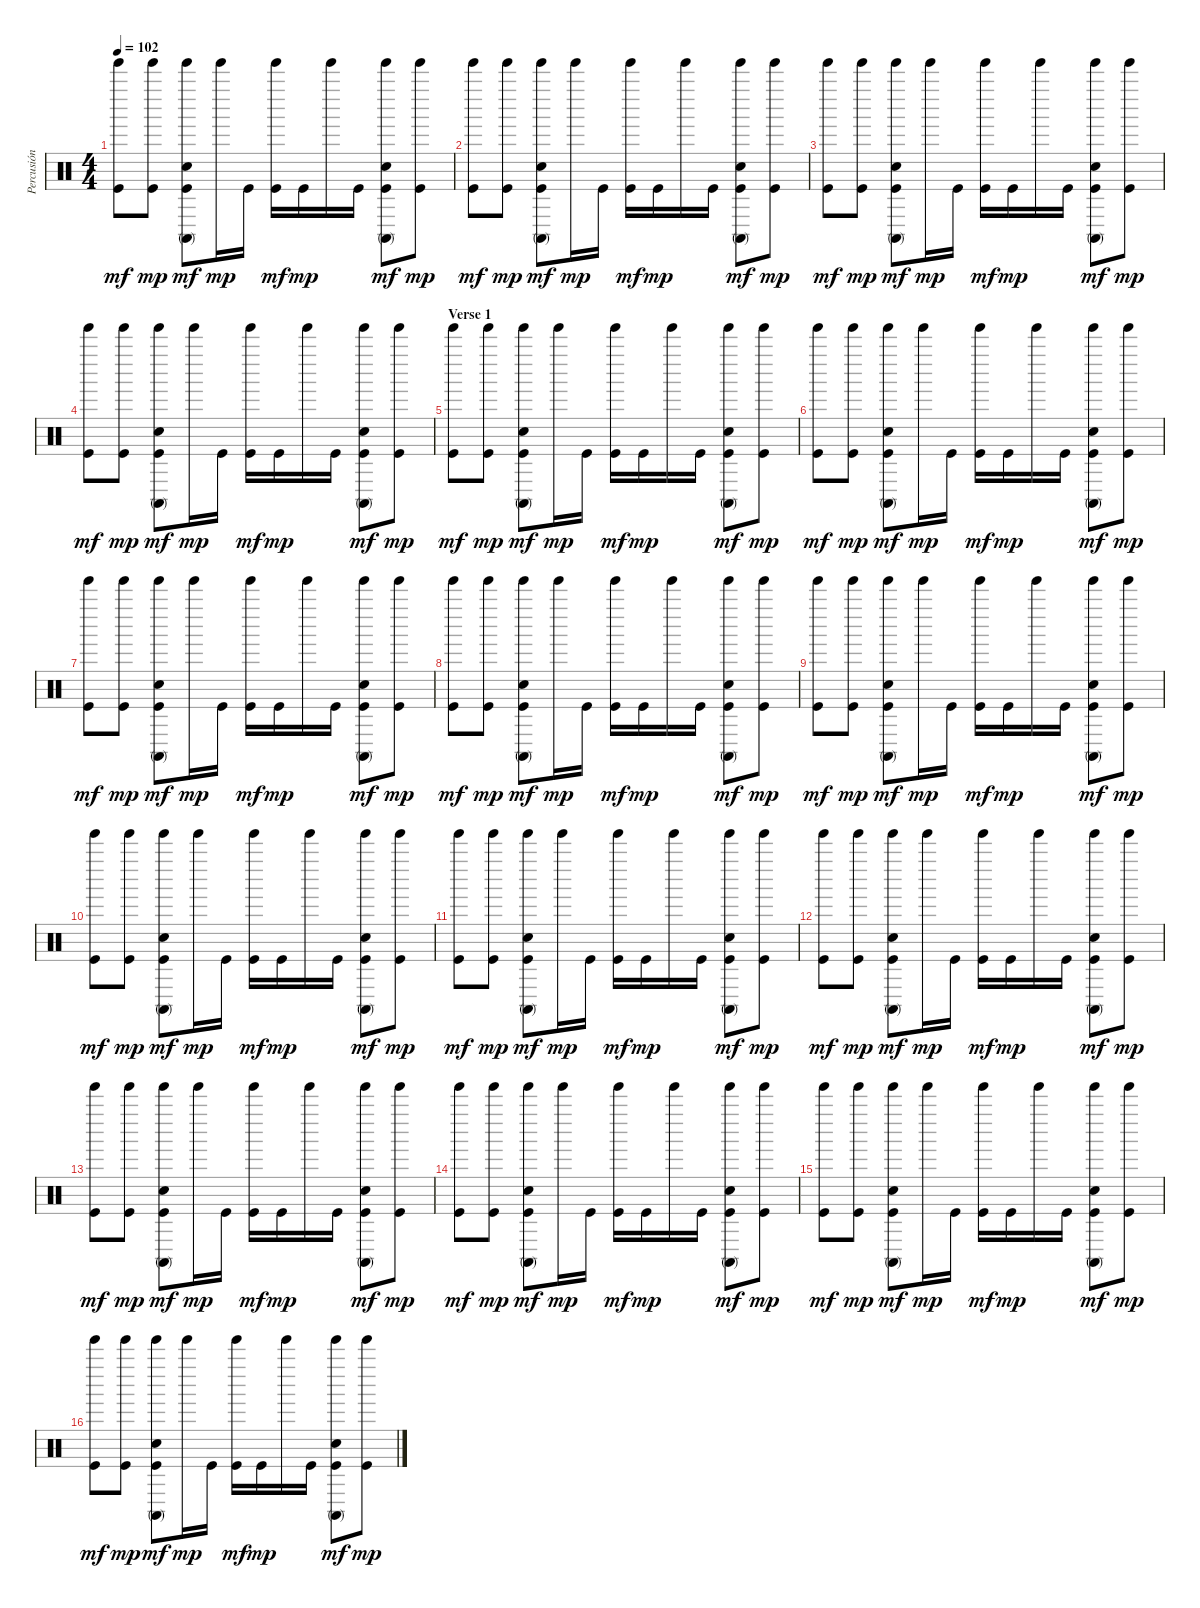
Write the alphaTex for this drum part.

\track ("Percusión" "Percusión") {instrument percussion}
\staff {score}
\articulation defaults
\ts (4 4)
\tempo 102
\clef neutral
\ks c
("Kick (hit)" "Tinkle Bell (hit)").8{dy mf} ("Kick (hit)" "Tinkle Bell (hit)").8{dy mp} ("Kick (hit)" "Snare (hit) 2" "Conga high (mute)" "Tinkle Bell (hit)").8{dy mf} "Tinkle Bell (hit)".16{dy mp} "Kick (hit)".16 ("Kick (hit)" "Tinkle Bell (hit)").16{dy mf} "Kick (hit)".16{dy mp} "Tinkle Bell (hit)".16 "Kick (hit)".16 ("Kick (hit)" "Snare (hit) 2" "Conga high (mute)" "Tinkle Bell (hit)").8{dy mf} ("Kick (hit)" "Tinkle Bell (hit)").8{dy mp} |
("Kick (hit)" "Tinkle Bell (hit)").8{dy mf} ("Kick (hit)" "Tinkle Bell (hit)").8{dy mp} ("Kick (hit)" "Snare (hit) 2" "Conga high (mute)" "Tinkle Bell (hit)").8{dy mf} "Tinkle Bell (hit)".16{dy mp} "Kick (hit)".16 ("Kick (hit)" "Tinkle Bell (hit)").16{dy mf} "Kick (hit)".16{dy mp} "Tinkle Bell (hit)".16 "Kick (hit)".16 ("Kick (hit)" "Snare (hit) 2" "Conga high (mute)" "Tinkle Bell (hit)").8{dy mf} ("Kick (hit)" "Tinkle Bell (hit)").8{dy mp} |
("Kick (hit)" "Tinkle Bell (hit)").8{dy mf} ("Kick (hit)" "Tinkle Bell (hit)").8{dy mp} ("Kick (hit)" "Snare (hit) 2" "Conga high (mute)" "Tinkle Bell (hit)").8{dy mf} "Tinkle Bell (hit)".16{dy mp} "Kick (hit)".16 ("Kick (hit)" "Tinkle Bell (hit)").16{dy mf} "Kick (hit)".16{dy mp} "Tinkle Bell (hit)".16 "Kick (hit)".16 ("Kick (hit)" "Snare (hit) 2" "Conga high (mute)" "Tinkle Bell (hit)").8{dy mf} ("Kick (hit)" "Tinkle Bell (hit)").8{dy mp} |
("Kick (hit)" "Tinkle Bell (hit)").8{dy mf} ("Kick (hit)" "Tinkle Bell (hit)").8{dy mp} ("Kick (hit)" "Snare (hit) 2" "Conga high (mute)" "Tinkle Bell (hit)").8{dy mf} "Tinkle Bell (hit)".16{dy mp} "Kick (hit)".16 ("Kick (hit)" "Tinkle Bell (hit)").16{dy mf} "Kick (hit)".16{dy mp} "Tinkle Bell (hit)".16 "Kick (hit)".16 ("Kick (hit)" "Snare (hit) 2" "Conga high (mute)" "Tinkle Bell (hit)").8{dy mf} ("Kick (hit)" "Tinkle Bell (hit)").8{dy mp} |
\section ("" "Verse 1")
("Kick (hit)" "Tinkle Bell (hit)").8{dy mf} ("Kick (hit)" "Tinkle Bell (hit)").8{dy mp} ("Kick (hit)" "Snare (hit) 2" "Conga high (mute)" "Tinkle Bell (hit)").8{dy mf} "Tinkle Bell (hit)".16{dy mp} "Kick (hit)".16 ("Kick (hit)" "Tinkle Bell (hit)").16{dy mf} "Kick (hit)".16{dy mp} "Tinkle Bell (hit)".16 "Kick (hit)".16 ("Kick (hit)" "Snare (hit) 2" "Conga high (mute)" "Tinkle Bell (hit)").8{dy mf} ("Kick (hit)" "Tinkle Bell (hit)").8{dy mp} |
("Kick (hit)" "Tinkle Bell (hit)").8{dy mf} ("Kick (hit)" "Tinkle Bell (hit)").8{dy mp} ("Kick (hit)" "Snare (hit) 2" "Conga high (mute)" "Tinkle Bell (hit)").8{dy mf} "Tinkle Bell (hit)".16{dy mp} "Kick (hit)".16 ("Kick (hit)" "Tinkle Bell (hit)").16{dy mf} "Kick (hit)".16{dy mp} "Tinkle Bell (hit)".16 "Kick (hit)".16 ("Kick (hit)" "Snare (hit) 2" "Conga high (mute)" "Tinkle Bell (hit)").8{dy mf} ("Kick (hit)" "Tinkle Bell (hit)").8{dy mp} |
("Kick (hit)" "Tinkle Bell (hit)").8{dy mf} ("Kick (hit)" "Tinkle Bell (hit)").8{dy mp} ("Kick (hit)" "Snare (hit) 2" "Conga high (mute)" "Tinkle Bell (hit)").8{dy mf} "Tinkle Bell (hit)".16{dy mp} "Kick (hit)".16 ("Kick (hit)" "Tinkle Bell (hit)").16{dy mf} "Kick (hit)".16{dy mp} "Tinkle Bell (hit)".16 "Kick (hit)".16 ("Kick (hit)" "Snare (hit) 2" "Conga high (mute)" "Tinkle Bell (hit)").8{dy mf} ("Kick (hit)" "Tinkle Bell (hit)").8{dy mp} |
("Kick (hit)" "Tinkle Bell (hit)").8{dy mf} ("Kick (hit)" "Tinkle Bell (hit)").8{dy mp} ("Kick (hit)" "Snare (hit) 2" "Conga high (mute)" "Tinkle Bell (hit)").8{dy mf} "Tinkle Bell (hit)".16{dy mp} "Kick (hit)".16 ("Kick (hit)" "Tinkle Bell (hit)").16{dy mf} "Kick (hit)".16{dy mp} "Tinkle Bell (hit)".16 "Kick (hit)".16 ("Kick (hit)" "Snare (hit) 2" "Conga high (mute)" "Tinkle Bell (hit)").8{dy mf} ("Kick (hit)" "Tinkle Bell (hit)").8{dy mp} |
("Kick (hit)" "Tinkle Bell (hit)").8{dy mf} ("Kick (hit)" "Tinkle Bell (hit)").8{dy mp} ("Kick (hit)" "Snare (hit) 2" "Conga high (mute)" "Tinkle Bell (hit)").8{dy mf} "Tinkle Bell (hit)".16{dy mp} "Kick (hit)".16 ("Kick (hit)" "Tinkle Bell (hit)").16{dy mf} "Kick (hit)".16{dy mp} "Tinkle Bell (hit)".16 "Kick (hit)".16 ("Kick (hit)" "Snare (hit) 2" "Conga high (mute)" "Tinkle Bell (hit)").8{dy mf} ("Kick (hit)" "Tinkle Bell (hit)").8{dy mp} |
("Kick (hit)" "Tinkle Bell (hit)").8{dy mf} ("Kick (hit)" "Tinkle Bell (hit)").8{dy mp} ("Kick (hit)" "Snare (hit) 2" "Conga high (mute)" "Tinkle Bell (hit)").8{dy mf} "Tinkle Bell (hit)".16{dy mp} "Kick (hit)".16 ("Kick (hit)" "Tinkle Bell (hit)").16{dy mf} "Kick (hit)".16{dy mp} "Tinkle Bell (hit)".16 "Kick (hit)".16 ("Kick (hit)" "Snare (hit) 2" "Conga high (mute)" "Tinkle Bell (hit)").8{dy mf} ("Kick (hit)" "Tinkle Bell (hit)").8{dy mp} |
("Kick (hit)" "Tinkle Bell (hit)").8{dy mf} ("Kick (hit)" "Tinkle Bell (hit)").8{dy mp} ("Kick (hit)" "Snare (hit) 2" "Conga high (mute)" "Tinkle Bell (hit)").8{dy mf} "Tinkle Bell (hit)".16{dy mp} "Kick (hit)".16 ("Kick (hit)" "Tinkle Bell (hit)").16{dy mf} "Kick (hit)".16{dy mp} "Tinkle Bell (hit)".16 "Kick (hit)".16 ("Kick (hit)" "Snare (hit) 2" "Conga high (mute)" "Tinkle Bell (hit)").8{dy mf} ("Kick (hit)" "Tinkle Bell (hit)").8{dy mp} |
("Kick (hit)" "Tinkle Bell (hit)").8{dy mf} ("Kick (hit)" "Tinkle Bell (hit)").8{dy mp} ("Kick (hit)" "Snare (hit) 2" "Conga high (mute)" "Tinkle Bell (hit)").8{dy mf} "Tinkle Bell (hit)".16{dy mp} "Kick (hit)".16 ("Kick (hit)" "Tinkle Bell (hit)").16{dy mf} "Kick (hit)".16{dy mp} "Tinkle Bell (hit)".16 "Kick (hit)".16 ("Kick (hit)" "Snare (hit) 2" "Conga high (mute)" "Tinkle Bell (hit)").8{dy mf} ("Kick (hit)" "Tinkle Bell (hit)").8{dy mp} |
("Kick (hit)" "Tinkle Bell (hit)").8{dy mf} ("Kick (hit)" "Tinkle Bell (hit)").8{dy mp} ("Kick (hit)" "Snare (hit) 2" "Conga high (mute)" "Tinkle Bell (hit)").8{dy mf} "Tinkle Bell (hit)".16{dy mp} "Kick (hit)".16 ("Kick (hit)" "Tinkle Bell (hit)").16{dy mf} "Kick (hit)".16{dy mp} "Tinkle Bell (hit)".16 "Kick (hit)".16 ("Kick (hit)" "Snare (hit) 2" "Conga high (mute)" "Tinkle Bell (hit)").8{dy mf} ("Kick (hit)" "Tinkle Bell (hit)").8{dy mp} |
("Kick (hit)" "Tinkle Bell (hit)").8{dy mf} ("Kick (hit)" "Tinkle Bell (hit)").8{dy mp} ("Kick (hit)" "Snare (hit) 2" "Conga high (mute)" "Tinkle Bell (hit)").8{dy mf} "Tinkle Bell (hit)".16{dy mp} "Kick (hit)".16 ("Kick (hit)" "Tinkle Bell (hit)").16{dy mf} "Kick (hit)".16{dy mp} "Tinkle Bell (hit)".16 "Kick (hit)".16 ("Kick (hit)" "Snare (hit) 2" "Conga high (mute)" "Tinkle Bell (hit)").8{dy mf} ("Kick (hit)" "Tinkle Bell (hit)").8{dy mp} |
("Kick (hit)" "Tinkle Bell (hit)").8{dy mf} ("Kick (hit)" "Tinkle Bell (hit)").8{dy mp} ("Kick (hit)" "Snare (hit) 2" "Conga high (mute)" "Tinkle Bell (hit)").8{dy mf} "Tinkle Bell (hit)".16{dy mp} "Kick (hit)".16 ("Kick (hit)" "Tinkle Bell (hit)").16{dy mf} "Kick (hit)".16{dy mp} "Tinkle Bell (hit)".16 "Kick (hit)".16 ("Kick (hit)" "Snare (hit) 2" "Conga high (mute)" "Tinkle Bell (hit)").8{dy mf} ("Kick (hit)" "Tinkle Bell (hit)").8{dy mp} |
("Kick (hit)" "Tinkle Bell (hit)").8{dy mf} ("Kick (hit)" "Tinkle Bell (hit)").8{dy mp} ("Kick (hit)" "Snare (hit) 2" "Conga high (mute)" "Tinkle Bell (hit)").8{dy mf} "Tinkle Bell (hit)".16{dy mp} "Kick (hit)".16 ("Kick (hit)" "Tinkle Bell (hit)").16{dy mf} "Kick (hit)".16{dy mp} "Tinkle Bell (hit)".16 "Kick (hit)".16 ("Kick (hit)" "Snare (hit) 2" "Conga high (mute)" "Tinkle Bell (hit)").8{dy mf} ("Kick (hit)" "Tinkle Bell (hit)").8{dy mp}
